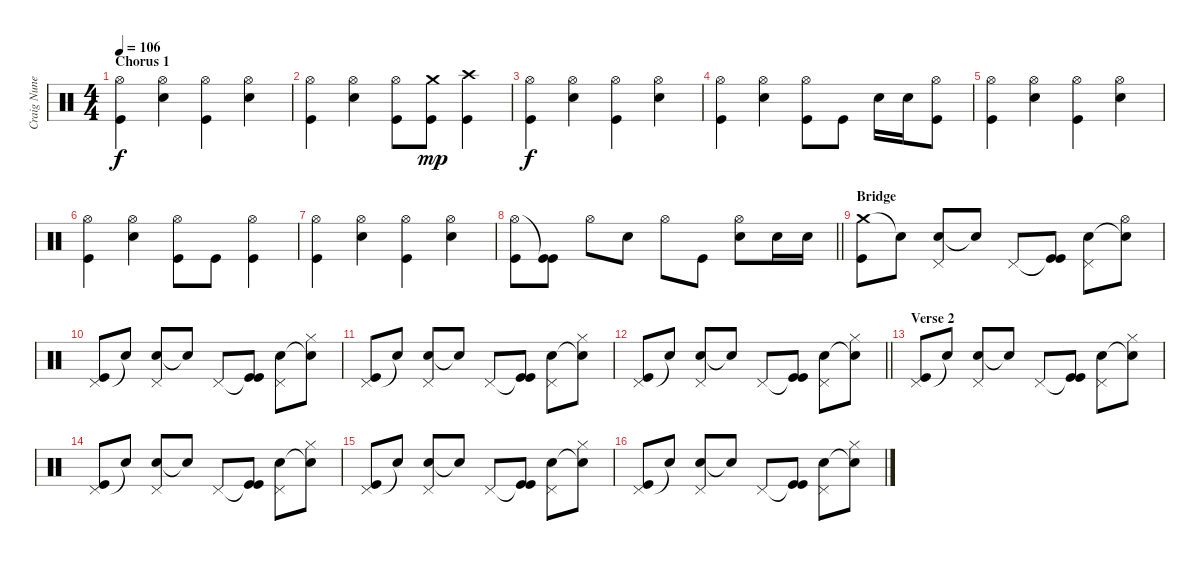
\track ("Craig Nunemacher" "Craig Nune") {instrument percussion}
\staff {score}
\articulation defaults
\ts (4 4)
\section ("" "Chorus 1")
\tempo 106
\clef neutral
\ks c
("Hi-Hat (open)" "Kick (hit)").4{dy f} ("Snare (hit) 2" "Hi-Hat (open)").4 ("Hi-Hat (open)" "Kick (hit)").4 ("Snare (hit) 2" "Hi-Hat (open)").4 |
("Hi-Hat (open)" "Kick (hit)").4 ("Snare (hit) 2" "Hi-Hat (open)").4 ("Hi-Hat (open)" "Kick (hit)").8 ("Crash medium (hit)" "Kick (hit)").8{dy mp} ("Crash high (hit)" "Kick (hit)").4 |
("Hi-Hat (open)" "Kick (hit)").4{dy f} ("Snare (hit) 2" "Hi-Hat (open)").4 ("Hi-Hat (open)" "Kick (hit)").4 ("Snare (hit) 2" "Hi-Hat (open)").4 |
("Hi-Hat (open)" "Kick (hit)").4 ("Snare (hit) 2" "Hi-Hat (open)").4 ("Hi-Hat (open)" "Kick (hit)").8 "Kick (hit)".8 "Snare (hit) 2".16 "Snare (hit) 2".16 ("Hi-Hat (open)" "Kick (hit)").8 |
("Hi-Hat (open)" "Kick (hit)").4 ("Snare (hit) 2" "Hi-Hat (open)").4 ("Hi-Hat (open)" "Kick (hit)").4 ("Snare (hit) 2" "Hi-Hat (open)").4 |
("Hi-Hat (open)" "Kick (hit)").4 ("Snare (hit) 2" "Hi-Hat (open)").4 ("Hi-Hat (open)" "Kick (hit)").8 "Kick (hit)".8 ("Hi-Hat (open)" "Kick (hit)").4 |
("Hi-Hat (open)" "Kick (hit)").4 ("Snare (hit) 2" "Hi-Hat (open)").4 ("Hi-Hat (open)" "Kick (hit)").4 ("Snare (hit) 2" "Hi-Hat (open)").4 |
\barLineRight lightlight
("Hi-Hat (open)" "Kick (hit)").8 ("Kick (hit)"{t} "Kick (hit)").8 "Hi-Hat (open)".8 "Snare (hit) 2".8 "Hi-Hat (open)".8 "Kick (hit)".8 ("Snare (hit) 2" "Hi-Hat (open)").8 "Snare (hit) 2".16 "Snare (hit) 2".16 |
\section ("" "Bridge")
("Crash medium (hit)" "Kick (hit)").8 "Snare (hit)"{t}.8 ("Snare (hit) 2" "Pedal Hi-Hat (hit)").8 "Snare (hit)"{t}.8 "Pedal Hi-Hat (hit)".8 ("Kick (hit)"{t} "Kick (hit)").8 ("Snare (hit) 2" "Pedal Hi-Hat (hit)").8 ("Snare (hit)"{t} "Hi-Hat (open)").8 |
("Pedal Hi-Hat (hit)" "Kick (hit)").8 "Snare (hit)"{t}.8 ("Snare (hit) 2" "Pedal Hi-Hat (hit)").8 "Snare (hit)"{t}.8 "Pedal Hi-Hat (hit)".8 ("Kick (hit)"{t} "Kick (hit)").8 ("Snare (hit) 2" "Pedal Hi-Hat (hit)").8 ("Snare (hit)"{t} "Hi-Hat (closed)").8 |
("Pedal Hi-Hat (hit)" "Kick (hit)").8 "Snare (hit)"{t}.8 ("Snare (hit) 2" "Pedal Hi-Hat (hit)").8 "Snare (hit)"{t}.8 "Pedal Hi-Hat (hit)".8 ("Kick (hit)"{t} "Kick (hit)").8 ("Snare (hit) 2" "Pedal Hi-Hat (hit)").8 ("Snare (hit)"{t} "Hi-Hat (closed)").8 |
\barLineRight lightlight
("Pedal Hi-Hat (hit)" "Kick (hit)").8 "Snare (hit)"{t}.8 ("Snare (hit) 2" "Pedal Hi-Hat (hit)").8 "Snare (hit)"{t}.8 "Pedal Hi-Hat (hit)".8 ("Kick (hit)"{t} "Kick (hit)").8 ("Snare (hit) 2" "Pedal Hi-Hat (hit)").8 ("Snare (hit)"{t} "Hi-Hat (closed)").8 |
\section ("" "Verse 2")
("Pedal Hi-Hat (hit)" "Kick (hit)").8 "Snare (hit)"{t}.8 ("Snare (hit) 2" "Pedal Hi-Hat (hit)").8 "Snare (hit)"{t}.8 "Pedal Hi-Hat (hit)".8 ("Kick (hit)"{t} "Kick (hit)").8 ("Snare (hit) 2" "Pedal Hi-Hat (hit)").8 ("Snare (hit)"{t} "Hi-Hat (closed)").8 |
("Pedal Hi-Hat (hit)" "Kick (hit)").8 "Snare (hit)"{t}.8 ("Snare (hit) 2" "Pedal Hi-Hat (hit)").8 "Snare (hit)"{t}.8 "Pedal Hi-Hat (hit)".8 ("Kick (hit)"{t} "Kick (hit)").8 ("Snare (hit) 2" "Pedal Hi-Hat (hit)").8 ("Snare (hit)"{t} "Hi-Hat (closed)").8 |
("Pedal Hi-Hat (hit)" "Kick (hit)").8 "Snare (hit)"{t}.8 ("Snare (hit) 2" "Pedal Hi-Hat (hit)").8 "Snare (hit)"{t}.8 "Pedal Hi-Hat (hit)".8 ("Kick (hit)"{t} "Kick (hit)").8 ("Snare (hit) 2" "Pedal Hi-Hat (hit)").8 ("Snare (hit)"{t} "Hi-Hat (closed)").8 |
("Pedal Hi-Hat (hit)" "Kick (hit)").8 "Snare (hit)"{t}.8 ("Snare (hit) 2" "Pedal Hi-Hat (hit)").8 "Snare (hit)"{t}.8 "Pedal Hi-Hat (hit)".8 ("Kick (hit)"{t} "Kick (hit)").8 ("Snare (hit) 2" "Pedal Hi-Hat (hit)").8 ("Snare (hit)"{t} "Hi-Hat (closed)").8
